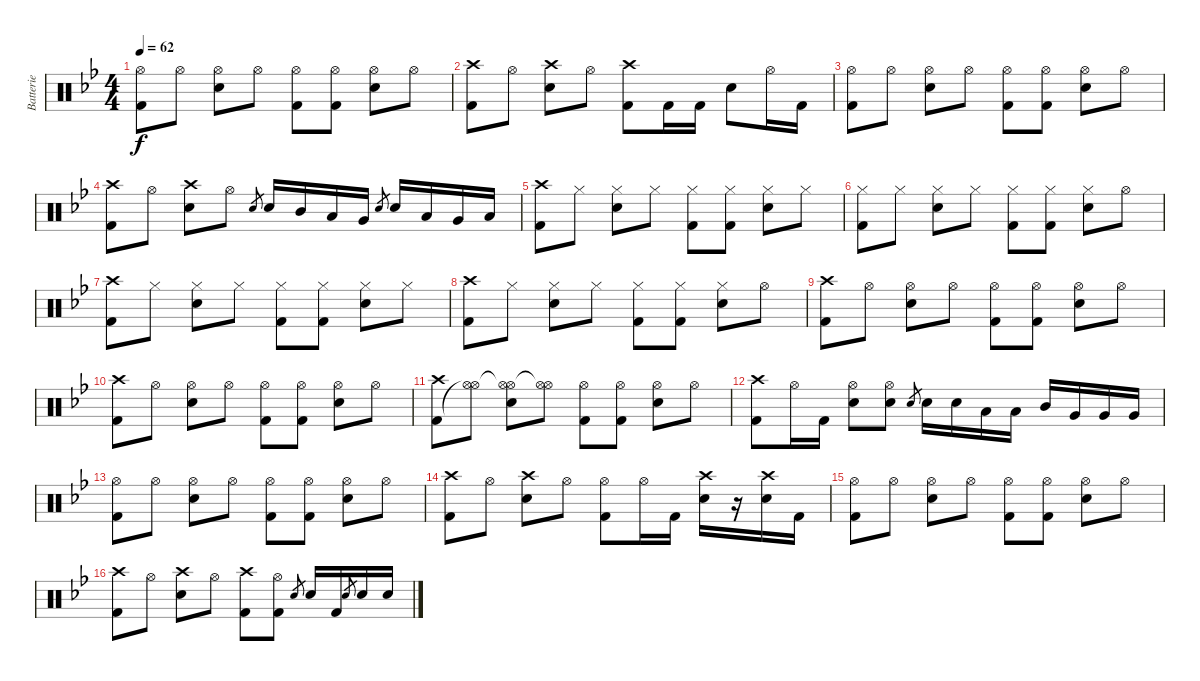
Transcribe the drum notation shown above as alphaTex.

\track ("Batterie" "Batterie") {instrument percussion}
\staff {score}
\articulation defaults
\ts (4 4)
\tempo 62
\clef neutral
\ks bb
("Hi-Hat (open)" "Kick (hit) 2").8{dy f} "Hi-Hat (open)".8 ("Hi-Hat (open)" "Snare (hit) 2").8 "Hi-Hat (open)".8 ("Hi-Hat (open)" "Kick (hit) 2").8 ("Hi-Hat (open)" "Kick (hit) 2").8 ("Hi-Hat (open)" "Snare (hit) 2").8 "Hi-Hat (open)".8 |
("Crash high (hit)" "Kick (hit) 2").8 "Hi-Hat (open)".8 ("Crash high (hit)" "Snare (hit) 2").8 "Hi-Hat (open)".8 ("Crash high (hit)" "Kick (hit) 2").8 "Kick (hit) 2".16 "Kick (hit) 2".16 "Snare (hit) 2".8 "Hi-Hat (open)".16 "Kick (hit) 2".16 |
("Hi-Hat (open)" "Kick (hit) 2").8 "Hi-Hat (open)".8 ("Hi-Hat (open)" "Snare (hit) 2").8 "Hi-Hat (open)".8 ("Hi-Hat (open)" "Kick (hit) 2").8 ("Hi-Hat (open)" "Kick (hit) 2").8 ("Hi-Hat (open)" "Snare (hit) 2").8 "Hi-Hat (open)".8 |
("Crash high (hit)" "Kick (hit) 2").8 "Hi-Hat (open)".8 ("Crash high (hit)" "Snare (hit) 2").8 "Hi-Hat (open)".8 "Snare (hit) 2".8{gr} "Snare (hit) 2".16 "Mid Tom (hit)".16 "Low Tom (hit)".16 "Very Low Tom (hit)".16 "Snare (hit) 2".8{gr} "Snare (hit) 2".16 "Low Tom (hit)".16 "Very Low Tom (hit)".16 "Low Floor Tom (hit)".16 |
("Crash high (hit)" "Kick (hit) 2").8 "Hi-Hat (closed)".8 ("Hi-Hat (closed)" "Snare (hit) 2").8 "Hi-Hat (closed)".8 ("Hi-Hat (closed)" "Kick (hit) 2").8 ("Hi-Hat (closed)" "Kick (hit) 2").8 ("Hi-Hat (closed)" "Snare (hit) 2").8 "Hi-Hat (closed)".8 |
("Hi-Hat (closed)" "Kick (hit) 2").8 "Hi-Hat (closed)".8 ("Hi-Hat (closed)" "Snare (hit) 2").8 "Hi-Hat (closed)".8 ("Hi-Hat (closed)" "Kick (hit) 2").8 ("Hi-Hat (closed)" "Kick (hit) 2").8 ("Hi-Hat (closed)" "Snare (hit) 2").8 "Hi-Hat (open)".8 |
("Crash high (hit)" "Kick (hit) 2").8 "Hi-Hat (closed)".8 ("Hi-Hat (closed)" "Snare (hit) 2").8 "Hi-Hat (closed)".8 ("Hi-Hat (closed)" "Kick (hit) 2").8 ("Hi-Hat (closed)" "Kick (hit) 2").8 ("Hi-Hat (closed)" "Snare (hit) 2").8 "Hi-Hat (closed)".8 |
("Crash high (hit)" "Kick (hit) 2").8 "Hi-Hat (closed)".8 ("Hi-Hat (closed)" "Snare (hit) 2").8 "Hi-Hat (closed)".8 ("Hi-Hat (closed)" "Kick (hit) 2").8 ("Hi-Hat (closed)" "Kick (hit) 2").8 ("Hi-Hat (closed)" "Snare (hit) 2").8 "Hi-Hat (open)".8 |
("Crash high (hit)" "Kick (hit) 2").8 "Hi-Hat (open)".8 ("Hi-Hat (open)" "Snare (hit) 2").8 "Hi-Hat (open)".8 ("Hi-Hat (open)" "Kick (hit) 2").8 ("Hi-Hat (open)" "Kick (hit) 2").8 ("Hi-Hat (open)" "Snare (hit) 2").8 "Hi-Hat (open)".8 |
("Crash high (hit)" "Kick (hit) 2").8 "Hi-Hat (open)".8 ("Hi-Hat (open)" "Snare (hit) 2").8 "Hi-Hat (open)".8 ("Hi-Hat (open)" "Kick (hit) 2").8 ("Hi-Hat (open)" "Kick (hit) 2").8 ("Hi-Hat (open)" "Snare (hit) 2").8 "Hi-Hat (open)".8 |
("Crash high (hit)" "Kick (hit) 2").8 ("Hi-Hat (open)" "Hi-Hat (open)"{t}).8 ("Hi-Hat (open)" "Hi-Hat (open)"{t} "Snare (hit) 2").8 ("Hi-Hat (open)" "Hi-Hat (open)"{t}).8 ("Hi-Hat (open)" "Kick (hit) 2").8 ("Hi-Hat (open)" "Kick (hit) 2").8 ("Hi-Hat (open)" "Snare (hit) 2").8 "Hi-Hat (open)".8 |
("Crash high (hit)" "Kick (hit) 2").8 "Hi-Hat (open)".16 "Kick (hit) 2".16 ("Hi-Hat (open)" "Snare (hit) 2").8 ("Hi-Hat (open)" "Snare (hit) 2").8 "Snare (hit) 2".8{gr} "Snare (hit) 2".16 "Snare (hit) 2".16 "Low Tom (hit)".16 "Low Tom (hit)".16 "Mid Tom (hit)".16 "Very Low Tom (hit)".16 "Very Low Tom (hit)".16 "Very Low Tom (hit)".16 |
("Hi-Hat (open)" "Kick (hit) 2").8 "Hi-Hat (open)".8 ("Hi-Hat (open)" "Snare (hit) 2").8 "Hi-Hat (open)".8 ("Hi-Hat (open)" "Kick (hit) 2").8 ("Hi-Hat (open)" "Kick (hit) 2").8 ("Hi-Hat (open)" "Snare (hit) 2").8 "Hi-Hat (open)".8 |
("Crash high (hit)" "Kick (hit) 2").8 "Hi-Hat (open)".8 ("Crash high (hit)" "Snare (hit) 2").8 "Hi-Hat (open)".8 ("Hi-Hat (open)" "Kick (hit) 2").8 "Hi-Hat (open)".16 "Kick (hit) 2".16 ("Crash high (hit)" "Snare (hit) 2").16 r.16 ("Crash high (hit)" "Snare (hit) 2").16 "Kick (hit) 2".16 |
("Hi-Hat (open)" "Kick (hit) 2").8 "Hi-Hat (open)".8 ("Hi-Hat (open)" "Snare (hit) 2").8 "Hi-Hat (open)".8 ("Hi-Hat (open)" "Kick (hit) 2").8 ("Hi-Hat (open)" "Kick (hit) 2").8 ("Hi-Hat (open)" "Snare (hit) 2").8 "Hi-Hat (open)".8 |
("Crash high (hit)" "Kick (hit) 2").8 "Hi-Hat (open)".8 ("Crash high (hit)" "Snare (hit) 2").8 "Hi-Hat (open)".8 ("Crash high (hit)" "Kick (hit) 2").8 ("Hi-Hat (open)" "Kick (hit) 2").8 "Snare (hit) 2".8{gr} "Snare (hit) 2".16 "Kick (hit) 2".16 "Snare (hit) 2".8{gr} "Snare (hit) 2".16 "Snare (hit) 2".16
